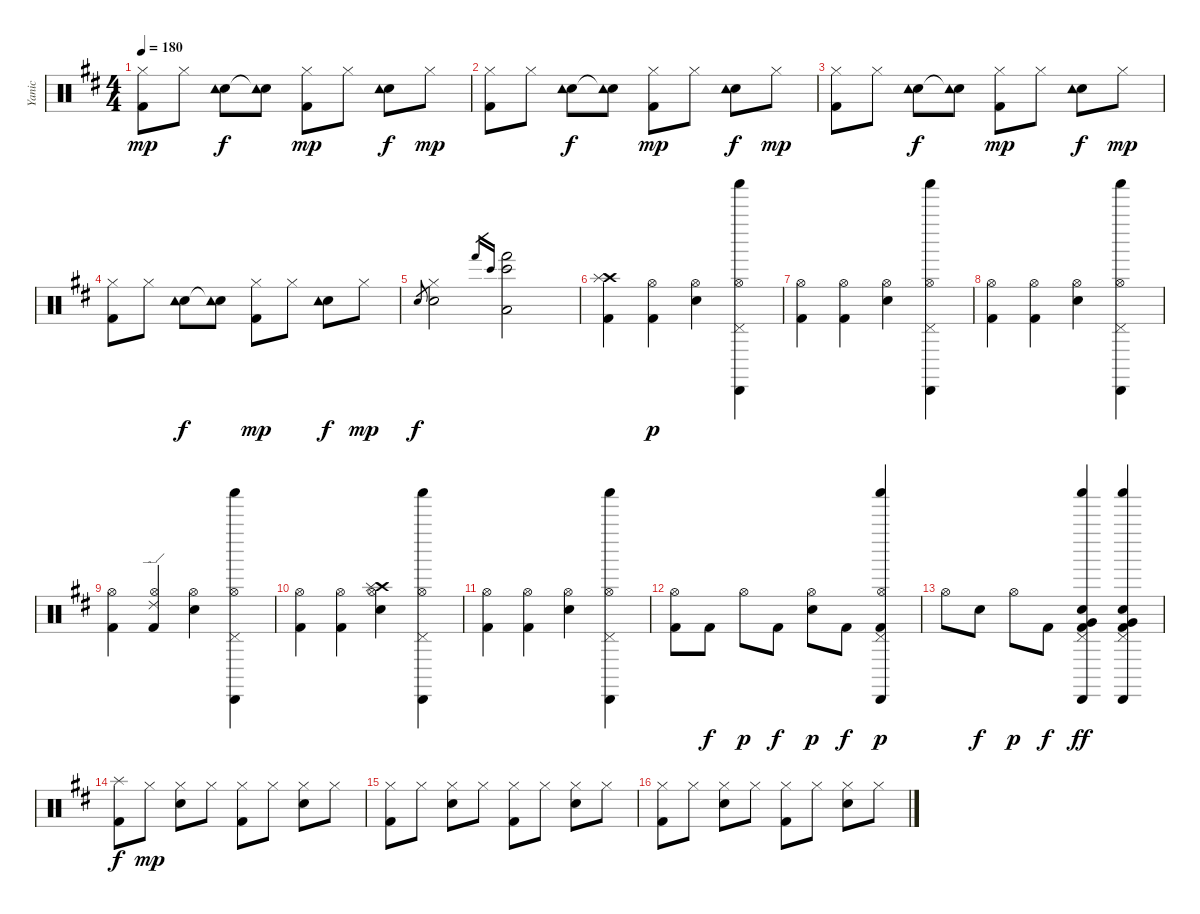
\track ("Yanic" "Yanic") {instrument percussion}
\staff {score}
\articulation defaults
\ts (4 4)
\tempo 180
\clef neutral
\ks d
("Kick (hit) 2" "Hi-Hat (closed)").8{dy mp} "Hi-Hat (closed)".8 ("Electric Snare (hit)" "Tambourine (hit)").8{dy f} ("Electric Snare (hit)" "Tambourine (hit)"{t}).8 ("Kick (hit) 2" "Hi-Hat (closed)").8{dy mp} "Hi-Hat (closed)".8 ("Electric Snare (hit)" "Tambourine (hit)").8{dy f} "Hi-Hat (closed)".8{dy mp} |
("Kick (hit) 2" "Hi-Hat (closed)").8 "Hi-Hat (closed)".8 ("Electric Snare (hit)" "Tambourine (hit)").8{dy f} ("Electric Snare (hit)" "Tambourine (hit)"{t}).8 ("Kick (hit) 2" "Hi-Hat (closed)").8{dy mp} "Hi-Hat (closed)".8 ("Electric Snare (hit)" "Tambourine (hit)").8{dy f} "Hi-Hat (closed)".8{dy mp} |
("Kick (hit) 2" "Hi-Hat (closed)").8 "Hi-Hat (closed)".8 ("Electric Snare (hit)" "Tambourine (hit)").8{dy f} ("Electric Snare (hit)" "Tambourine (hit)"{t}).8 ("Kick (hit) 2" "Hi-Hat (closed)").8{dy mp} "Hi-Hat (closed)".8 ("Electric Snare (hit)" "Tambourine (hit)").8{dy f} "Hi-Hat (closed)".8{dy mp} |
("Kick (hit) 2" "Hi-Hat (closed)").8 "Hi-Hat (closed)".8 ("Electric Snare (hit)" "Tambourine (hit)").8{dy f} ("Electric Snare (hit)" "Tambourine (hit)"{t}).8 ("Kick (hit) 2" "Hi-Hat (closed)").8{dy mp} "Hi-Hat (closed)".8 ("Electric Snare (hit)" "Tambourine (hit)").8{dy f} "Hi-Hat (closed)".8{dy mp} |
"Electric Snare (hit)".8{gr dy f} ("Electric Snare (hit)" "Hi-Hat (closed)").2 "Hand (hit)".16{gr} "Bongo High (hit)".16{gr} ("Hand (hit)" "Bongo High (hit)" "Low Floor Tom (hit)").2 |
("Kick (hit) 2" "Crash high (hit)" "Splash (hit)").4 ("Kick (hit) 2" "Hi-Hat (open)").4{dy p} ("Electric Snare (hit)" "Hi-Hat (open)").4 ("Cabasa (hit)" "Shaker (hit)" "Pedal Hi-Hat (hit)" "Hi-Hat (open)").4 |
("Kick (hit) 2" "Hi-Hat (open)").4 ("Kick (hit) 2" "Hi-Hat (open)").4 ("Electric Snare (hit)" "Hi-Hat (open)").4 ("Cabasa (hit)" "Shaker (hit)" "Pedal Hi-Hat (hit)" "Hi-Hat (open)").4 |
("Kick (hit) 2" "Hi-Hat (open)").4 ("Kick (hit) 2" "Hi-Hat (open)").4 ("Electric Snare (hit)" "Hi-Hat (open)").4 ("Cabasa (hit)" "Shaker (hit)" "Pedal Hi-Hat (hit)" "Hi-Hat (open)").4 |
("Kick (hit) 2" "Hi-Hat (open)").4 ("Kick (hit) 2" "Hi-Hat (open)" "Ride (edge) 2").4 ("Electric Snare (hit)" "Hi-Hat (open)").4 ("Cabasa (hit)" "Shaker (hit)" "Pedal Hi-Hat (hit)" "Hi-Hat (open)").4 |
("Kick (hit) 2" "Hi-Hat (open)").4 ("Kick (hit) 2" "Hi-Hat (open)").4 ("Electric Snare (hit)" "Hi-Hat (open)" "Crash high (hit)" "Splash (hit)").4 ("Cabasa (hit)" "Shaker (hit)" "Pedal Hi-Hat (hit)" "Hi-Hat (open)").4 |
("Kick (hit) 2" "Hi-Hat (open)").4 ("Kick (hit) 2" "Hi-Hat (open)").4 ("Electric Snare (hit)" "Hi-Hat (open)").4 ("Cabasa (hit)" "Shaker (hit)" "Pedal Hi-Hat (hit)" "Hi-Hat (open)").4 |
("Kick (hit) 2" "Hi-Hat (open)").8 "Kick (hit) 2".8{dy f} "Hi-Hat (open)".8{dy p} "Kick (hit) 2".8{dy f} ("Electric Snare (hit)" "Hi-Hat (open)").8{dy p} "Kick (hit) 2".8{dy f} ("Kick (hit) 2" "Hi-Hat (open)" "Cabasa (hit)" "Shaker (hit)" "Pedal Hi-Hat (hit)").4{dy p} |
"Hi-Hat (open)".8 "Electric Snare (hit)".8{dy f} "Hi-Hat (open)".8{dy p} "Kick (hit) 2".8{dy f} ("Electric Snare (hit)" "Very Low Tom (hit)" "Kick (hit) 2" "Cabasa (hit)" "Shaker (hit)" "Pedal Hi-Hat (hit)").4{dy ff} ("Electric Snare (hit)" "Very Low Tom (hit)" "Kick (hit) 2" "Cabasa (hit)" "Shaker (hit)" "Pedal Hi-Hat (hit)").4 |
("Kick (hit) 2" "Splash (hit)").8{dy f} "Hi-Hat (closed)".8{dy mp} ("Electric Snare (hit)" "Hi-Hat (closed)").8 "Hi-Hat (closed)".8 ("Kick (hit) 2" "Hi-Hat (closed)").8 "Hi-Hat (closed)".8 ("Electric Snare (hit)" "Hi-Hat (closed)").8 "Hi-Hat (closed)".8 |
("Kick (hit) 2" "Hi-Hat (closed)").8 "Hi-Hat (closed)".8 ("Electric Snare (hit)" "Hi-Hat (closed)").8 "Hi-Hat (closed)".8 ("Kick (hit) 2" "Hi-Hat (closed)").8 "Hi-Hat (closed)".8 ("Electric Snare (hit)" "Hi-Hat (closed)").8 "Hi-Hat (closed)".8 |
("Kick (hit) 2" "Hi-Hat (closed)").8 "Hi-Hat (closed)".8 ("Electric Snare (hit)" "Hi-Hat (closed)").8 "Hi-Hat (closed)".8 ("Kick (hit) 2" "Hi-Hat (closed)").8 "Hi-Hat (closed)".8 ("Electric Snare (hit)" "Hi-Hat (closed)").8 "Hi-Hat (closed)".8
